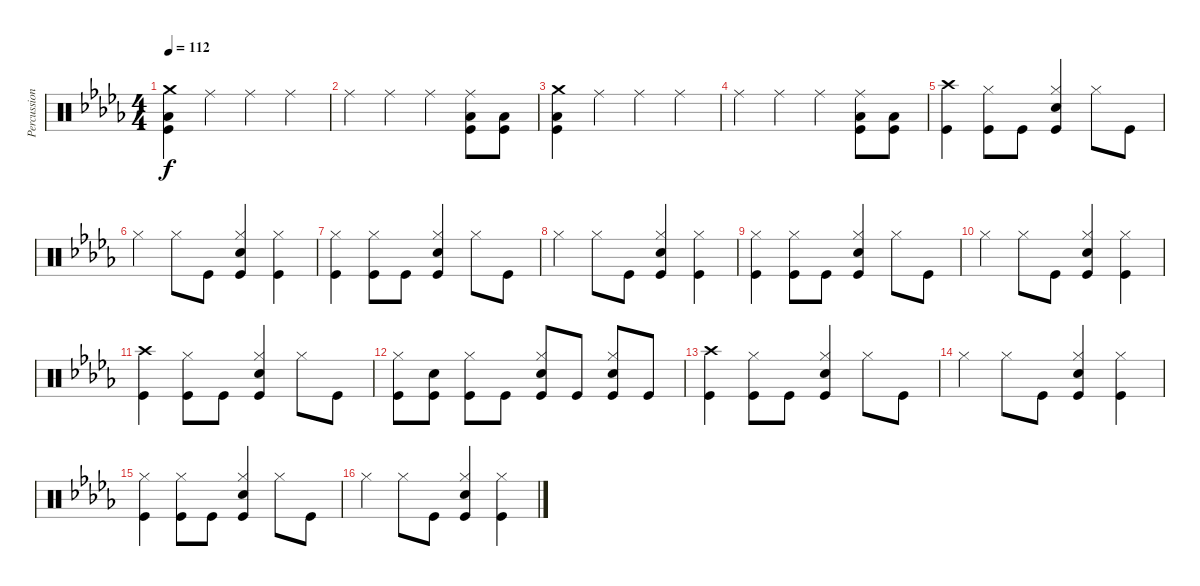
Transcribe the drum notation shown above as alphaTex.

\track ("Percussion" "Percussion") {instrument percussion}
\staff {score}
\articulation defaults
\ts (4 4)
\tempo 112
\clef neutral
\ks bbminor
("Kick (hit)" "Low Floor Tom (hit)" "Crash medium (hit)").4{dy f} "Ride (middle)".4 "Ride (middle)".4 "Ride (middle)".4 |
"Ride (middle)".4 "Ride (middle)".4 "Ride (middle)".4 ("Kick (hit)" "Low Floor Tom (hit)" "Ride (middle)").8 ("Kick (hit)" "Low Floor Tom (hit)").8 |
("Kick (hit)" "Low Floor Tom (hit)" "Crash medium (hit)").4 "Ride (middle)".4 "Ride (middle)".4 "Ride (middle)".4 |
"Ride (middle)".4 "Ride (middle)".4 "Ride (middle)".4 ("Kick (hit)" "Low Floor Tom (hit)" "Ride (middle)").8 ("Kick (hit)" "Low Floor Tom (hit)").8 |
("Kick (hit)" "Crash high (hit)").4 ("Kick (hit)" "Hi-Hat (closed)").8 "Kick (hit)".8 ("Kick (hit)" "Snare (hit) 2" "Hi-Hat (closed)").4 "Hi-Hat (closed)".8 "Kick (hit)".8 |
"Hi-Hat (closed)".4 "Hi-Hat (closed)".8 "Kick (hit)".8 ("Kick (hit)" "Snare (hit) 2" "Hi-Hat (closed)").4 ("Kick (hit)" "Hi-Hat (closed)").4 |
("Kick (hit)" "Hi-Hat (closed)").4 ("Kick (hit)" "Hi-Hat (closed)").8 "Kick (hit)".8 ("Kick (hit)" "Snare (hit) 2" "Hi-Hat (closed)").4 "Hi-Hat (closed)".8 "Kick (hit)".8 |
"Hi-Hat (closed)".4 "Hi-Hat (closed)".8 "Kick (hit)".8 ("Kick (hit)" "Snare (hit) 2" "Hi-Hat (closed)").4 ("Kick (hit)" "Hi-Hat (closed)").4 |
("Kick (hit)" "Hi-Hat (closed)").4 ("Kick (hit)" "Hi-Hat (closed)").8 "Kick (hit)".8 ("Kick (hit)" "Snare (hit) 2" "Hi-Hat (closed)").4 "Hi-Hat (closed)".8 "Kick (hit)".8 |
"Hi-Hat (closed)".4 "Hi-Hat (closed)".8 "Kick (hit)".8 ("Kick (hit)" "Snare (hit) 2" "Hi-Hat (closed)").4 ("Kick (hit)" "Hi-Hat (closed)").4 |
("Kick (hit)" "Crash high (hit)").4 ("Kick (hit)" "Hi-Hat (closed)").8 "Kick (hit)".8 ("Kick (hit)" "Snare (hit) 2" "Hi-Hat (closed)").4 "Hi-Hat (closed)".8 "Kick (hit)".8 |
("Kick (hit)" "Hi-Hat (closed)").8 ("Kick (hit)" "Snare (hit) 2").8 ("Kick (hit)" "Hi-Hat (closed)").8 "Kick (hit)".8 ("Kick (hit)" "Snare (hit) 2" "Hi-Hat (closed)").8 "Kick (hit)".8 ("Kick (hit)" "Snare (hit) 2" "Hi-Hat (closed)").8 "Kick (hit)".8 |
("Kick (hit)" "Crash high (hit)").4 ("Kick (hit)" "Hi-Hat (closed)").8 "Kick (hit)".8 ("Kick (hit)" "Snare (hit) 2" "Hi-Hat (closed)").4 "Hi-Hat (closed)".8 "Kick (hit)".8 |
"Hi-Hat (closed)".4 "Hi-Hat (closed)".8 "Kick (hit)".8 ("Kick (hit)" "Snare (hit) 2" "Hi-Hat (closed)").4 ("Kick (hit)" "Hi-Hat (closed)").4 |
("Kick (hit)" "Hi-Hat (closed)").4 ("Kick (hit)" "Hi-Hat (closed)").8 "Kick (hit)".8 ("Kick (hit)" "Snare (hit) 2" "Hi-Hat (closed)").4 "Hi-Hat (closed)".8 "Kick (hit)".8 |
"Hi-Hat (closed)".4 "Hi-Hat (closed)".8 "Kick (hit)".8 ("Kick (hit)" "Snare (hit) 2" "Hi-Hat (closed)").4 ("Kick (hit)" "Hi-Hat (closed)").4
